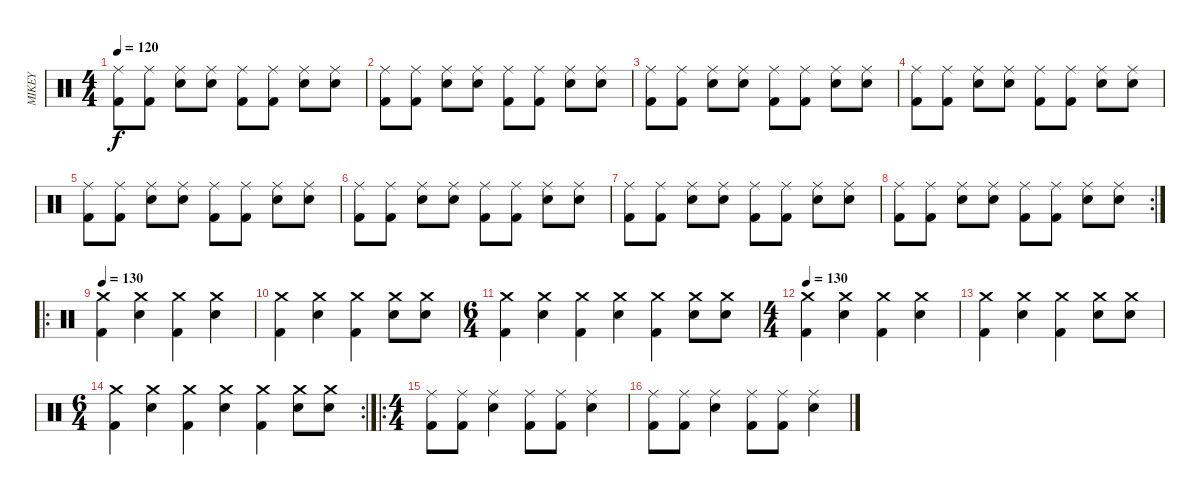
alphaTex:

\track ("MIKEY" "MIKEY") {instrument percussion}
\staff {score}
\articulation defaults
\ts (4 4)
\tempo 120
\clef neutral
\ks c
("Ride (middle)" "Kick (hit) 2").8{dy f} ("Ride (middle)" "Kick (hit) 2").8 ("Ride (middle)" "Snare (hit) 2").8 ("Ride (middle)" "Snare (hit) 2").8 ("Ride (middle)" "Kick (hit) 2").8 ("Ride (middle)" "Kick (hit) 2").8 ("Ride (middle)" "Snare (hit) 2").8 ("Ride (middle)" "Snare (hit) 2").8 |
("Ride (middle)" "Kick (hit) 2").8 ("Ride (middle)" "Kick (hit) 2").8 ("Ride (middle)" "Snare (hit) 2").8 ("Ride (middle)" "Snare (hit) 2").8 ("Ride (middle)" "Kick (hit) 2").8 ("Ride (middle)" "Kick (hit) 2").8 ("Ride (middle)" "Snare (hit) 2").8 ("Ride (middle)" "Snare (hit) 2").8 |
("Ride (middle)" "Kick (hit) 2").8 ("Ride (middle)" "Kick (hit) 2").8 ("Ride (middle)" "Snare (hit) 2").8 ("Ride (middle)" "Snare (hit) 2").8 ("Ride (middle)" "Kick (hit) 2").8 ("Ride (middle)" "Kick (hit) 2").8 ("Ride (middle)" "Snare (hit) 2").8 ("Ride (middle)" "Snare (hit) 2").8 |
("Ride (middle)" "Kick (hit) 2").8 ("Ride (middle)" "Kick (hit) 2").8 ("Ride (middle)" "Snare (hit) 2").8 ("Ride (middle)" "Snare (hit) 2").8 ("Ride (middle)" "Kick (hit) 2").8 ("Ride (middle)" "Kick (hit) 2").8 ("Ride (middle)" "Snare (hit) 2").8 ("Ride (middle)" "Snare (hit) 2").8 |
("Ride (middle)" "Kick (hit) 2").8 ("Ride (middle)" "Kick (hit) 2").8 ("Ride (middle)" "Snare (hit) 2").8 ("Ride (middle)" "Snare (hit) 2").8 ("Ride (middle)" "Kick (hit) 2").8 ("Ride (middle)" "Kick (hit) 2").8 ("Ride (middle)" "Snare (hit) 2").8 ("Ride (middle)" "Snare (hit) 2").8 |
("Ride (middle)" "Kick (hit) 2").8 ("Ride (middle)" "Kick (hit) 2").8 ("Ride (middle)" "Snare (hit) 2").8 ("Ride (middle)" "Snare (hit) 2").8 ("Ride (middle)" "Kick (hit) 2").8 ("Ride (middle)" "Kick (hit) 2").8 ("Ride (middle)" "Snare (hit) 2").8 ("Ride (middle)" "Snare (hit) 2").8 |
("Ride (middle)" "Kick (hit) 2").8 ("Ride (middle)" "Kick (hit) 2").8 ("Ride (middle)" "Snare (hit) 2").8 ("Ride (middle)" "Snare (hit) 2").8 ("Ride (middle)" "Kick (hit) 2").8 ("Ride (middle)" "Kick (hit) 2").8 ("Ride (middle)" "Snare (hit) 2").8 ("Ride (middle)" "Snare (hit) 2").8 |
\rc 2
("Ride (middle)" "Kick (hit) 2").8 ("Ride (middle)" "Kick (hit) 2").8 ("Ride (middle)" "Snare (hit) 2").8 ("Ride (middle)" "Snare (hit) 2").8 ("Ride (middle)" "Kick (hit) 2").8 ("Ride (middle)" "Kick (hit) 2").8 ("Ride (middle)" "Snare (hit) 2").8 ("Ride (middle)" "Snare (hit) 2").8 |
\ro
\tempo 130
("Crash medium (hit)" "Kick (hit) 2").4 ("Crash medium (hit)" "Snare (hit) 2").4 ("Crash medium (hit)" "Kick (hit) 2").4 ("Crash medium (hit)" "Snare (hit) 2").4 |
("Crash medium (hit)" "Kick (hit) 2").4 ("Crash medium (hit)" "Snare (hit) 2").4 ("Crash medium (hit)" "Kick (hit) 2").4 ("Crash medium (hit)" "Snare (hit) 2").8 ("Crash medium (hit)" "Snare (hit) 2").8 |
\ts (6 4)
("Crash medium (hit)" "Kick (hit) 2").4 ("Crash medium (hit)" "Snare (hit) 2").4 ("Crash medium (hit)" "Kick (hit) 2").4 ("Crash medium (hit)" "Snare (hit) 2").4 ("Crash medium (hit)" "Kick (hit) 2").4 ("Crash medium (hit)" "Snare (hit) 2").8 ("Crash medium (hit)" "Snare (hit) 2").8 |
\ts (4 4)
\tempo 130
("Crash medium (hit)" "Kick (hit) 2").4 ("Crash medium (hit)" "Snare (hit) 2").4 ("Crash medium (hit)" "Kick (hit) 2").4 ("Crash medium (hit)" "Snare (hit) 2").4 |
("Crash medium (hit)" "Kick (hit) 2").4 ("Crash medium (hit)" "Snare (hit) 2").4 ("Crash medium (hit)" "Kick (hit) 2").4 ("Crash medium (hit)" "Snare (hit) 2").8 ("Crash medium (hit)" "Snare (hit) 2").8 |
\rc 2
\ts (6 4)
("Crash medium (hit)" "Kick (hit) 2").4 ("Crash medium (hit)" "Snare (hit) 2").4 ("Crash medium (hit)" "Kick (hit) 2").4 ("Crash medium (hit)" "Snare (hit) 2").4 ("Crash medium (hit)" "Kick (hit) 2").4 ("Crash medium (hit)" "Snare (hit) 2").8 ("Crash medium (hit)" "Snare (hit) 2").8 |
\ro
\ts (4 4)
("Ride (middle)" "Kick (hit) 2").8 ("Ride (middle)" "Kick (hit) 2").8 ("Ride (middle)" "Snare (hit) 2").4 ("Ride (middle)" "Kick (hit) 2").8 ("Ride (middle)" "Kick (hit) 2").8 ("Ride (middle)" "Snare (hit) 2").4 |
("Ride (middle)" "Kick (hit) 2").8 ("Ride (middle)" "Kick (hit) 2").8 ("Ride (middle)" "Snare (hit) 2").4 ("Ride (middle)" "Kick (hit) 2").8 ("Ride (middle)" "Kick (hit) 2").8 ("Ride (middle)" "Snare (hit) 2").4
